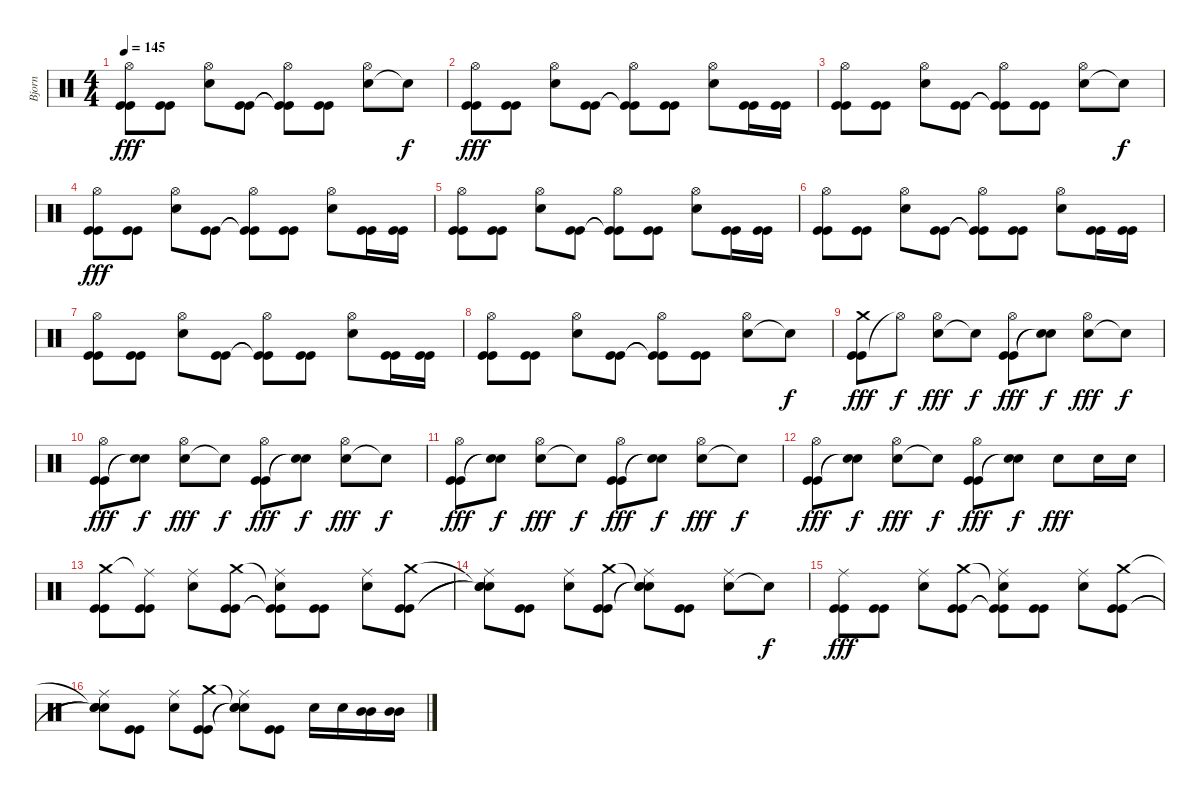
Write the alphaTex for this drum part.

\track ("Bjorn" "Bjorn") {instrument percussion}
\staff {score}
\articulation defaults
\ts (4 4)
\tempo 145
\clef neutral
\ks c
("Kick (hit)" "Kick (hit)" "Hi-Hat (open)").8{dy fff} ("Kick (hit)" "Kick (hit)").8 ("Snare (hit) 2" "Hi-Hat (open)").8 ("Kick (hit)" "Kick (hit)").8 ("Kick (hit)"{t} "Kick (hit)"{t} "Hi-Hat (open)").8 ("Kick (hit)" "Kick (hit)").8 ("Snare (hit) 2" "Hi-Hat (open)").8 "Snare (hit)"{t}.8{dy f} |
("Kick (hit)" "Kick (hit)" "Hi-Hat (open)").8{dy fff} ("Kick (hit)" "Kick (hit)").8 ("Snare (hit) 2" "Hi-Hat (open)").8 ("Kick (hit)" "Kick (hit)").8 ("Kick (hit)"{t} "Kick (hit)"{t} "Hi-Hat (open)").8 ("Kick (hit)" "Kick (hit)").8 ("Snare (hit) 2" "Hi-Hat (open)").8 ("Kick (hit)" "Kick (hit)").16 ("Kick (hit)" "Kick (hit)").16 |
("Kick (hit)" "Kick (hit)" "Hi-Hat (open)").8 ("Kick (hit)" "Kick (hit)").8 ("Snare (hit) 2" "Hi-Hat (open)").8 ("Kick (hit)" "Kick (hit)").8 ("Kick (hit)"{t} "Kick (hit)"{t} "Hi-Hat (open)").8 ("Kick (hit)" "Kick (hit)").8 ("Snare (hit) 2" "Hi-Hat (open)").8 "Snare (hit)"{t}.8{dy f} |
("Kick (hit)" "Kick (hit)" "Hi-Hat (open)").8{dy fff} ("Kick (hit)" "Kick (hit)").8 ("Snare (hit) 2" "Hi-Hat (open)").8 ("Kick (hit)" "Kick (hit)").8 ("Kick (hit)"{t} "Kick (hit)"{t} "Hi-Hat (open)").8 ("Kick (hit)" "Kick (hit)").8 ("Snare (hit) 2" "Hi-Hat (open)").8 ("Kick (hit)" "Kick (hit)").16 ("Kick (hit)" "Kick (hit)").16 |
("Kick (hit)" "Kick (hit)" "Hi-Hat (open)").8 ("Kick (hit)" "Kick (hit)").8 ("Snare (hit) 2" "Hi-Hat (open)").8 ("Kick (hit)" "Kick (hit)").8 ("Kick (hit)"{t} "Kick (hit)"{t} "Hi-Hat (open)").8 ("Kick (hit)" "Kick (hit)").8 ("Snare (hit) 2" "Hi-Hat (open)").8 ("Kick (hit)" "Kick (hit)").16 ("Kick (hit)" "Kick (hit)").16 |
("Kick (hit)" "Kick (hit)" "Hi-Hat (open)").8 ("Kick (hit)" "Kick (hit)").8 ("Snare (hit) 2" "Hi-Hat (open)").8 ("Kick (hit)" "Kick (hit)").8 ("Kick (hit)"{t} "Kick (hit)"{t} "Hi-Hat (open)").8 ("Kick (hit)" "Kick (hit)").8 ("Snare (hit) 2" "Hi-Hat (open)").8 ("Kick (hit)" "Kick (hit)").16 ("Kick (hit)" "Kick (hit)").16 |
("Kick (hit)" "Kick (hit)" "Hi-Hat (open)").8 ("Kick (hit)" "Kick (hit)").8 ("Snare (hit) 2" "Hi-Hat (open)").8 ("Kick (hit)" "Kick (hit)").8 ("Kick (hit)"{t} "Kick (hit)"{t} "Hi-Hat (open)").8 ("Kick (hit)" "Kick (hit)").8 ("Snare (hit) 2" "Hi-Hat (open)").8 ("Kick (hit)" "Kick (hit)").16 ("Kick (hit)" "Kick (hit)").16 |
("Kick (hit)" "Kick (hit)" "Hi-Hat (open)").8 ("Kick (hit)" "Kick (hit)").8 ("Snare (hit) 2" "Hi-Hat (open)").8 ("Kick (hit)" "Kick (hit)").8 ("Kick (hit)"{t} "Kick (hit)"{t} "Hi-Hat (open)").8 ("Kick (hit)" "Kick (hit)").8 ("Snare (hit) 2" "Hi-Hat (open)").8 "Snare (hit)"{t}.8{dy f} |
("Kick (hit)" "Kick (hit)" "Crash medium (hit)").8{dy fff} "Hi-Hat (open)"{t}.8{dy f} ("Snare (hit) 2" "Hi-Hat (open)").8{dy fff} "Snare (hit)"{t}.8{dy f} ("Kick (hit)" "Kick (hit)" "Hi-Hat (open)").8{dy fff} ("Snare (hit)"{t} "Snare (hit)"{t}).8{dy f} ("Snare (hit) 2" "Hi-Hat (open)").8{dy fff} "Snare (hit)"{t}.8{dy f} |
("Kick (hit)" "Kick (hit)" "Hi-Hat (open)").8{dy fff} ("Snare (hit)"{t} "Snare (hit)"{t}).8{dy f} ("Snare (hit) 2" "Hi-Hat (open)").8{dy fff} "Snare (hit)"{t}.8{dy f} ("Kick (hit)" "Kick (hit)" "Hi-Hat (open)").8{dy fff} ("Snare (hit)"{t} "Snare (hit)"{t}).8{dy f} ("Snare (hit) 2" "Hi-Hat (open)").8{dy fff} "Snare (hit)"{t}.8{dy f} |
("Kick (hit)" "Kick (hit)" "Hi-Hat (open)").8{dy fff} ("Snare (hit)"{t} "Snare (hit)"{t}).8{dy f} ("Snare (hit) 2" "Hi-Hat (open)").8{dy fff} "Snare (hit)"{t}.8{dy f} ("Kick (hit)" "Kick (hit)" "Hi-Hat (open)").8{dy fff} ("Snare (hit)"{t} "Snare (hit)"{t}).8{dy f} ("Snare (hit) 2" "Hi-Hat (open)").8{dy fff} "Snare (hit)"{t}.8{dy f} |
("Kick (hit)" "Kick (hit)" "Hi-Hat (open)").8{dy fff} ("Snare (hit)"{t} "Snare (hit)"{t}).8{dy f} ("Snare (hit) 2" "Hi-Hat (open)").8{dy fff} "Snare (hit)"{t}.8{dy f} ("Kick (hit)" "Kick (hit)" "Hi-Hat (open)").8{dy fff} ("Snare (hit)"{t} "Snare (hit)"{t}).8{dy f} "Snare (hit) 2".8{dy fff} "Snare (hit) 2".16 "Snare (hit) 2".16 |
("Kick (hit)" "Kick (hit)" "Crash medium (hit)").8 ("Kick (hit)" "Kick (hit)" "Ride (middle)"{t}).8 ("Snare (hit) 2" "Ride (middle)").8 ("Kick (hit)" "Kick (hit)" "Crash medium (hit)").8 ("Kick (hit)"{t} "Kick (hit)"{t} "Snare (hit)"{t} "Ride (middle)").8 ("Kick (hit)" "Kick (hit)").8 ("Snare (hit) 2" "Ride (middle)").8 ("Kick (hit)" "Kick (hit)" "Crash medium (hit)").8 |
("Snare (hit)"{t} "Snare (hit)"{t} "Snare (hit)"{t} "Ride (middle)").8 ("Kick (hit)" "Kick (hit)").8 ("Snare (hit) 2" "Ride (middle)").8 ("Kick (hit)" "Kick (hit)" "Crash medium (hit)").8 ("Snare (hit)"{t} "Snare (hit)"{t} "Snare (hit)"{t} "Ride (middle)").8 ("Kick (hit)" "Kick (hit)").8 ("Snare (hit) 2" "Ride (middle)").8 "Snare (hit)"{t}.8{dy f} |
("Kick (hit)" "Kick (hit)" "Ride (middle)").8{dy fff} ("Kick (hit)" "Kick (hit)").8 ("Snare (hit) 2" "Ride (middle)").8 ("Kick (hit)" "Kick (hit)" "Crash medium (hit)").8 ("Kick (hit)"{t} "Kick (hit)"{t} "Snare (hit)"{t} "Ride (middle)").8 ("Kick (hit)" "Kick (hit)").8 ("Snare (hit) 2" "Ride (middle)").8 ("Kick (hit)" "Kick (hit)" "Crash medium (hit)").8 |
("Snare (hit)"{t} "Snare (hit)"{t} "Snare (hit)"{t} "Ride (middle)").8 ("Kick (hit)" "Kick (hit)").8 ("Snare (hit) 2" "Ride (middle)").8 ("Kick (hit)" "Kick (hit)" "Crash medium (hit)").8 ("Snare (hit)"{t} "Snare (hit)"{t} "Snare (hit)"{t} "Ride (middle)").8 ("Kick (hit)" "Kick (hit)").8 "Snare (hit) 2".16 "Snare (hit) 2".16 ("Mid Tom (hit)" "Mid Tom (hit)").16 ("Mid Tom (hit)" "Mid Tom (hit)").16
